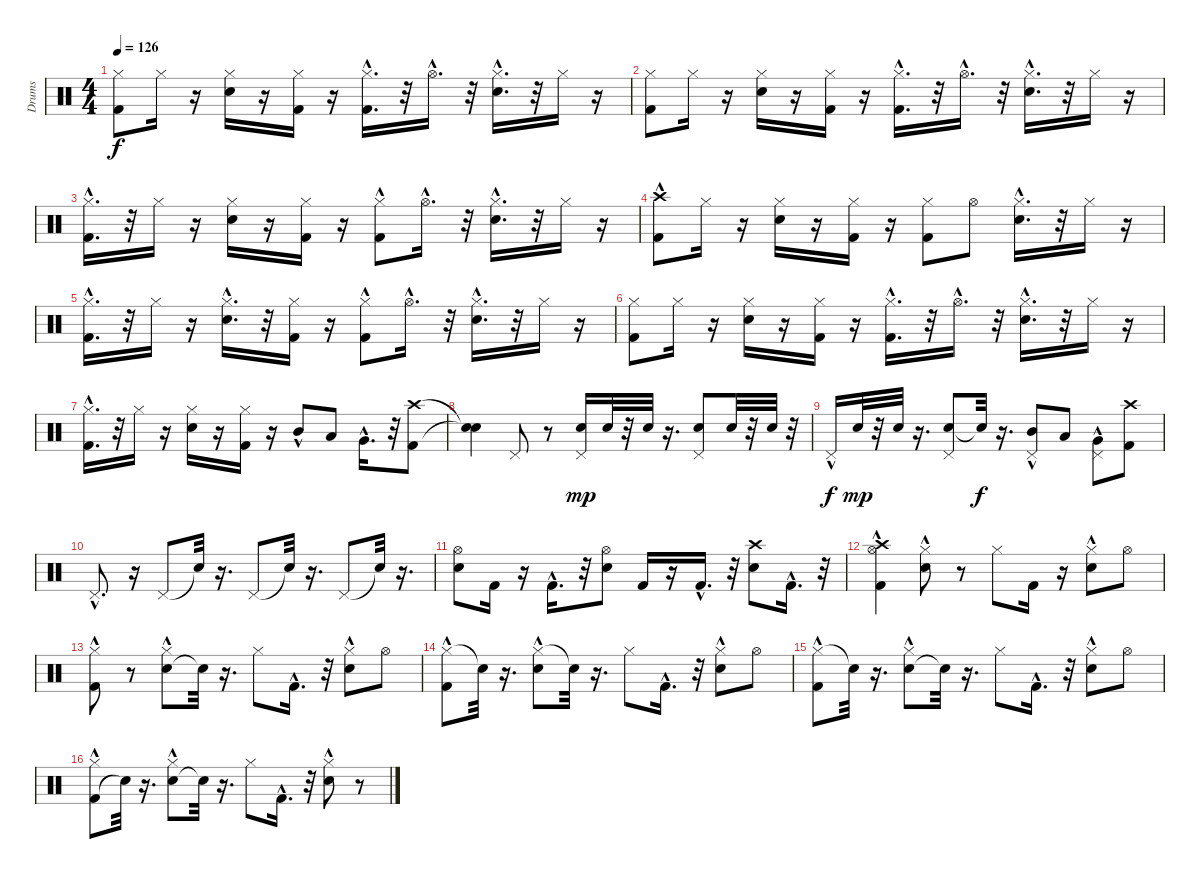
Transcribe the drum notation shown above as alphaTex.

\track ("Drums" "Drums") {instrument percussion}
\staff {score}
\articulation defaults
\ts (4 4)
\tempo 126
\clef neutral
\ks c
("Hi-Hat (closed)" "Kick (hit) 2").8{dy f} "Hi-Hat (closed)".16 r.16 ("Electric Snare (hit)" "Hi-Hat (closed)").16 r.16 ("Hi-Hat (closed)" "Kick (hit) 2").16 r.16 ("Kick (hit) 2"{hac} "Hi-Hat (closed)"{hac}).16{d} r.32 "Hi-Hat (open)"{hac}.16{d} r.32 ("Electric Snare (hit)"{hac} "Hi-Hat (closed)"{hac}).16{d} r.32 "Hi-Hat (closed)".16 r.16 |
("Kick (hit) 2" "Hi-Hat (closed)").8 "Hi-Hat (closed)".16 r.16 ("Hi-Hat (closed)" "Electric Snare (hit)").16 r.16 ("Hi-Hat (closed)" "Kick (hit) 2").16 r.16 ("Kick (hit) 2"{hac} "Hi-Hat (closed)").16{d} r.32 "Hi-Hat (open)"{hac}.16{d} r.32 ("Electric Snare (hit)"{hac} "Hi-Hat (closed)").16{d} r.32 "Hi-Hat (closed)".16 r.16 |
("Kick (hit) 2"{hac} "Hi-Hat (closed)").16{d} r.32 "Hi-Hat (closed)".16 r.16 ("Electric Snare (hit)" "Hi-Hat (closed)").16 r.16 ("Hi-Hat (closed)" "Kick (hit) 2").16 r.16 ("Hi-Hat (closed)"{hac} "Kick (hit) 2").8 "Hi-Hat (open)"{hac}.16{d} r.32 ("Hi-Hat (closed)"{hac} "Electric Snare (hit)"{hac}).16{d} r.32 "Hi-Hat (closed)".16 r.16 |
("Crash high (hit)"{hac} "Kick (hit) 2").8 "Hi-Hat (closed)".16 r.16 ("Electric Snare (hit)" "Hi-Hat (closed)").16 r.16 ("Kick (hit) 2" "Hi-Hat (closed)").16 r.16 ("Kick (hit) 2" "Hi-Hat (closed)").8 "Hi-Hat (open)".8 ("Electric Snare (hit)"{hac} "Hi-Hat (closed)").16{d} r.32 "Hi-Hat (closed)".16 r.16 |
("Hi-Hat (closed)" "Kick (hit) 2"{hac}).16{d} r.32 "Hi-Hat (closed)".16 r.16 ("Hi-Hat (closed)" "Electric Snare (hit)"{hac}).16{d} r.32 ("Kick (hit) 2" "Hi-Hat (closed)").16 r.16 ("Kick (hit) 2" "Hi-Hat (closed)"{hac}).8 "Hi-Hat (open)"{hac}.16{d} r.32 ("Hi-Hat (closed)"{hac} "Electric Snare (hit)").16{d} r.32 "Hi-Hat (closed)".16 r.16 |
("Kick (hit) 2" "Hi-Hat (closed)").8 "Hi-Hat (closed)".16 r.16 ("Hi-Hat (closed)" "Electric Snare (hit)").16 r.16 ("Hi-Hat (closed)" "Kick (hit) 2").16 r.16 ("Kick (hit) 2"{hac} "Hi-Hat (closed)").16{d} r.32 "Hi-Hat (open)"{hac}.16{d} r.32 ("Hi-Hat (closed)" "Electric Snare (hit)"{hac}).16{d} r.32 "Hi-Hat (closed)".16 r.16 |
("Kick (hit) 2"{hac} "Hi-Hat (closed)").16{d} r.32 "Hi-Hat (closed)".16 r.16 ("Hi-Hat (closed)" "Electric Snare (hit)").16 r.16 ("Kick (hit) 2" "Hi-Hat (closed)").16 r.16 "Mid Tom (hit)"{hac}.8 "Low Tom (hit)".8 "Very Low Tom (hit)"{hac}.16{d} r.32 ("Crash high (hit)" "Kick (hit) 2").8 |
("Snare (hit)"{t} "Snare (hit)"{t}).4 "Pedal Hi-Hat (hit)".8 r.8 ("Hand Clap (hit)" "Pedal Hi-Hat (hit)").16{dy mp} "Hand Clap (hit)".32 r.32 "Hand Clap (hit)".32 r.16{d} ("Pedal Hi-Hat (hit)" "Hand Clap (hit)").8 "Hand Clap (hit)".32 r.32 "Hand Clap (hit)".32 r.32 |
"Pedal Hi-Hat (hit)"{hac}.16{dy f} "Hand Clap (hit)".32{dy mp} r.32 "Hand Clap (hit)".32 r.16{d} ("Hand Clap (hit)" "Pedal Hi-Hat (hit)").8 "Snare (hit)"{t}.32{dy f} r.16{d} ("Mid Tom (hit)"{hac} "Pedal Hi-Hat (hit)").8 "Low Tom (hit)".8 ("Very Low Tom (hit)"{hac} "Pedal Hi-Hat (hit)").8 ("Crash high (hit)" "Kick (hit) 2").8 |
"Pedal Hi-Hat (hit)"{hac}.8{d} r.16 "Pedal Hi-Hat (hit)".8 "Snare (hit)"{t}.32 r.16{d} "Pedal Hi-Hat (hit)".8 "Snare (hit)"{t}.32 r.16{d} "Pedal Hi-Hat (hit)".8 "Snare (hit)"{t}.32 r.16{d} |
("Electric Snare (hit)" "Hi-Hat (open)").8 "Kick (hit) 2".16 r.16 "Kick (hit) 2"{hac}.16{d} r.32 ("Electric Snare (hit)" "Hi-Hat (open)").8 "Kick (hit) 2".16 r.16 "Kick (hit) 2"{hac}.16{d} r.32 ("Electric Snare (hit)" "Crash high (hit)").8 "Kick (hit) 2"{hac}.16{d} r.32 |
("Crash high (hit)" "Kick (hit) 2"{hac} "Hi-Hat (open)").4 ("Hi-Hat (closed)" "Electric Snare (hit)"{hac}).8 r.8 "Hi-Hat (closed)".8 "Kick (hit) 2".16 r.16 ("Hi-Hat (closed)" "Electric Snare (hit)"{hac}).8 "Hi-Hat (open)".8 |
("Hi-Hat (closed)" "Kick (hit) 2"{hac}).8 r.8 ("Electric Snare (hit)"{hac} "Hi-Hat (closed)").8 "Snare (hit)"{t}.32 r.16{d} "Hi-Hat (closed)".8 "Kick (hit) 2"{hac}.16{d} r.32 ("Hi-Hat (closed)" "Electric Snare (hit)"{hac}).8 "Hi-Hat (open)".8 |
("Hi-Hat (closed)" "Kick (hit) 2"{hac}).8 "Snare (hit)"{t}.32 r.16{d} ("Hi-Hat (closed)" "Electric Snare (hit)"{hac}).8 "Snare (hit)"{t}.32 r.16{d} "Hi-Hat (closed)".8 "Kick (hit) 2"{hac}.16{d} r.32 ("Electric Snare (hit)"{hac} "Hi-Hat (closed)").8 "Hi-Hat (open)".8 |
("Hi-Hat (closed)" "Kick (hit) 2"{hac}).8 "Snare (hit)"{t}.32 r.16{d} ("Electric Snare (hit)"{hac} "Hi-Hat (closed)").8 "Snare (hit)"{t}.32 r.16{d} "Hi-Hat (closed)".8 "Kick (hit) 2"{hac}.16{d} r.32 ("Electric Snare (hit)"{hac} "Hi-Hat (closed)").8 "Hi-Hat (open)".8 |
("Kick (hit) 2"{hac} "Hi-Hat (closed)").8 "Snare (hit)"{t}.32 r.16{d} ("Electric Snare (hit)"{hac} "Hi-Hat (closed)").8 "Snare (hit)"{t}.32 r.16{d} "Hi-Hat (closed)".8 "Kick (hit) 2"{hac}.16{d} r.32 ("Hi-Hat (closed)" "Electric Snare (hit)"{hac}).8 r.8
